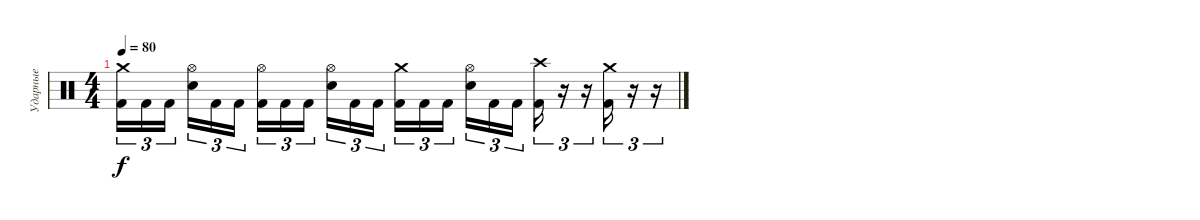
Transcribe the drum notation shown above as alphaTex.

\track ("Ударные" "Ударные") {instrument percussion}
\staff {score}
\articulation defaults
\ts (4 4)
\tempo 80
\clef neutral
\ks c
("Crash medium (hit)" "Kick (hit) 2").16{tu (3 2) dy f} "Kick (hit) 2".16{tu (3 2)} "Kick (hit) 2".16{tu (3 2) beam splitsecondary} ("Hi-Hat (open)" "Electric Snare (hit)").16{tu (3 2)} "Kick (hit) 2".16{tu (3 2)} "Kick (hit) 2".16{tu (3 2)} ("Hi-Hat (open)" "Kick (hit) 2").16{tu (3 2)} "Kick (hit) 2".16{tu (3 2)} "Kick (hit) 2".16{tu (3 2) beam splitsecondary} ("Hi-Hat (open)" "Electric Snare (hit)").16{tu (3 2)} "Kick (hit) 2".16{tu (3 2)} "Kick (hit) 2".16{tu (3 2)} ("Crash medium (hit)" "Kick (hit) 2").16{tu (3 2)} "Kick (hit) 2".16{tu (3 2)} "Kick (hit) 2".16{tu (3 2) beam splitsecondary} ("Hi-Hat (open)" "Electric Snare (hit)").16{tu (3 2)} "Kick (hit) 2".16{tu (3 2)} "Kick (hit) 2".16{tu (3 2)} ("Crash high (hit)" "Kick (hit) 2").16{tu (3 2)} r.16{tu (3 2)} r.16{tu (3 2)} ("Crash medium (hit)" "Kick (hit) 2").16{tu (3 2)} r.16{tu (3 2)} r.16{tu (3 2)}
